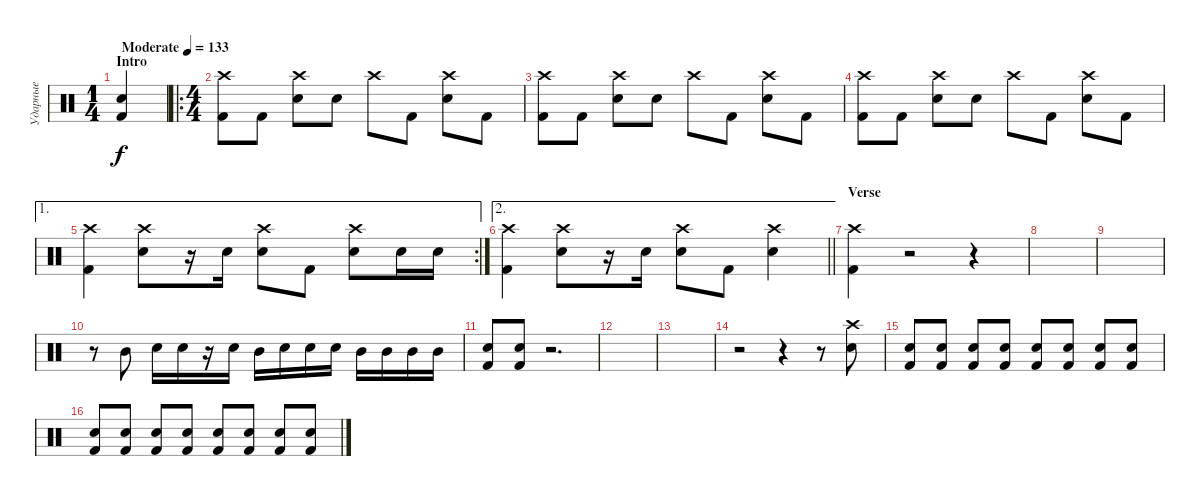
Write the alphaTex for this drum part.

\track ("Ударные" "Ударные") {instrument percussion}
\staff {score}
\articulation defaults
\ts (1 4)
\section ("" "Intro")
\tempo (133 "Moderate")
\clef neutral
\ks c
("Electric Snare (hit)" "Kick (hit) 2").4{dy f} |
\ro
\ts (4 4)
("Crash high (hit)" "Kick (hit) 2").8 "Kick (hit) 2".8 ("Crash high (hit)" "Electric Snare (hit)").8 "Electric Snare (hit)".8 "Crash high (hit)".8 "Kick (hit) 2".8 ("Crash high (hit)" "Electric Snare (hit)").8 "Kick (hit) 2".8 |
("Crash high (hit)" "Kick (hit) 2").8 "Kick (hit) 2".8 ("Crash high (hit)" "Electric Snare (hit)").8 "Electric Snare (hit)".8 "Crash high (hit)".8 "Kick (hit) 2".8 ("Crash high (hit)" "Electric Snare (hit)").8 "Kick (hit) 2".8 |
("Crash high (hit)" "Kick (hit) 2").8 "Kick (hit) 2".8 ("Crash high (hit)" "Electric Snare (hit)").8 "Electric Snare (hit)".8 "Crash high (hit)".8 "Kick (hit) 2".8 ("Crash high (hit)" "Electric Snare (hit)").8 "Kick (hit) 2".8 |
\ae 1
\rc 2
("Crash high (hit)" "Kick (hit) 2").4 ("Crash high (hit)" "Electric Snare (hit)").8 r.16 "Electric Snare (hit)".16 ("Crash high (hit)" "Electric Snare (hit)").8 "Kick (hit) 2".8 ("Crash high (hit)" "Electric Snare (hit)").8 "Electric Snare (hit)".16 "Electric Snare (hit)".16 |
\ae 2
\barLineRight lightlight
("Crash high (hit)" "Kick (hit) 2").4 ("Crash high (hit)" "Electric Snare (hit)").8 r.16 "Electric Snare (hit)".16 ("Crash high (hit)" "Electric Snare (hit)").8 "Kick (hit) 2".8 ("Crash high (hit)" "Electric Snare (hit)").4 |
\section ("" "Verse")
("Crash high (hit)" "Kick (hit) 2").4 r.2 r.4 |
|
|
r.8 "Mid Tom (hit)".8 "Electric Snare (hit)".16 "Electric Snare (hit)".16 r.16 "Electric Snare (hit)".16 "Mid Tom (hit)".16 "Electric Snare (hit)".16 "Electric Snare (hit)".16 "Electric Snare (hit)".16 "Mid Tom (hit)".16 "Mid Tom (hit)".16 "Mid Tom (hit)".16 "Mid Tom (hit)".16 |
("Electric Snare (hit)" "Kick (hit) 2").8 ("Electric Snare (hit)" "Kick (hit) 2").8 r.2{d} |
|
|
r.2 r.4 r.8 ("Crash high (hit)" "Electric Snare (hit)").8 |
("Electric Snare (hit)" "Kick (hit) 2").8 ("Electric Snare (hit)" "Kick (hit) 2").8 ("Electric Snare (hit)" "Kick (hit) 2").8 ("Electric Snare (hit)" "Kick (hit) 2").8 ("Electric Snare (hit)" "Kick (hit) 2").8 ("Electric Snare (hit)" "Kick (hit) 2").8 ("Electric Snare (hit)" "Kick (hit) 2").8 ("Electric Snare (hit)" "Kick (hit) 2").8 |
("Electric Snare (hit)" "Kick (hit) 2").8 ("Electric Snare (hit)" "Kick (hit) 2").8 ("Electric Snare (hit)" "Kick (hit) 2").8 ("Electric Snare (hit)" "Kick (hit) 2").8 ("Electric Snare (hit)" "Kick (hit) 2").8 ("Electric Snare (hit)" "Kick (hit) 2").8 ("Electric Snare (hit)" "Kick (hit) 2").8 ("Electric Snare (hit)" "Kick (hit) 2").8
